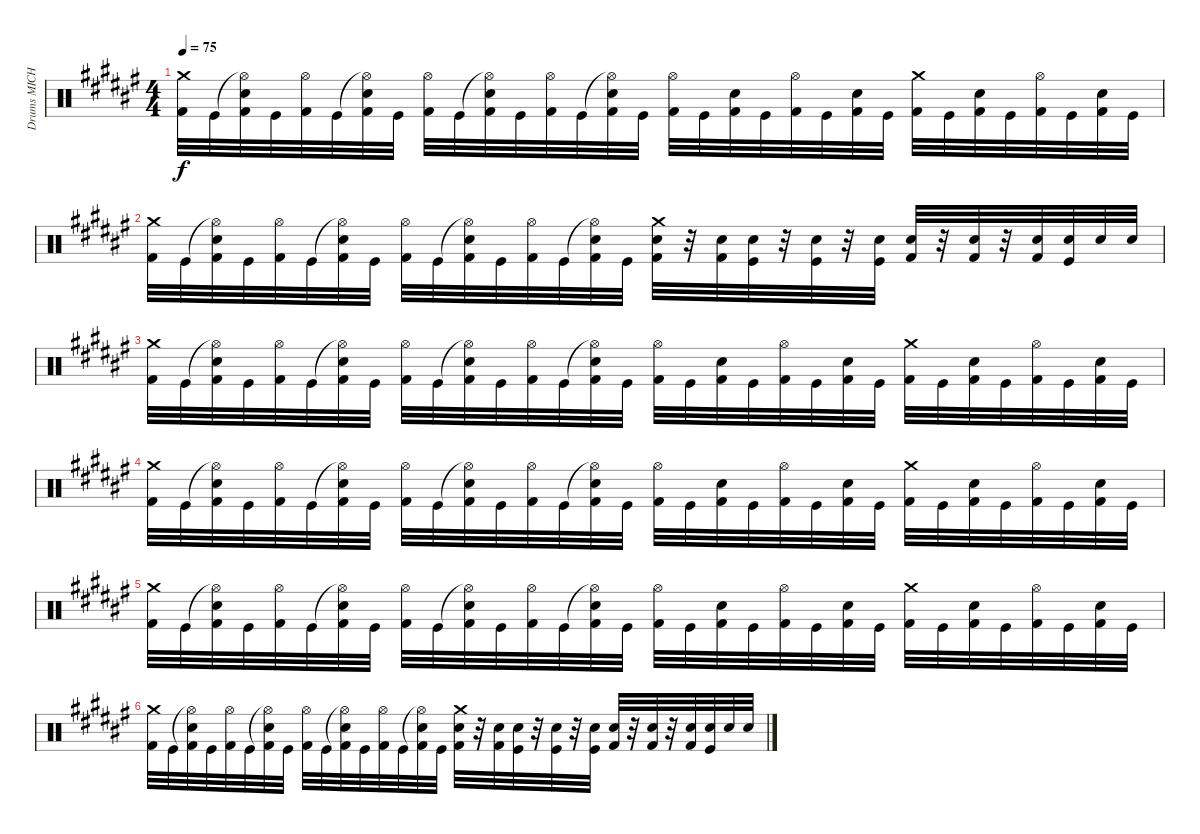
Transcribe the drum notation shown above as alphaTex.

\track ("Drums MICHAEL" "Drums MICH") {instrument percussion}
\staff {score}
\articulation defaults
\ts (4 4)
\tempo 75
\clef neutral
\ks d#minor
("Crash medium (hit)" "Kick (hit) 2").32{dy f} "Kick (hit)".32 ("Hi-Hat (open)"{t} "Snare (hit) 2" "Kick (hit) 2").32 "Kick (hit)".32 ("Hi-Hat (open)" "Kick (hit) 2").32 "Kick (hit)".32 ("Hi-Hat (open)"{t} "Snare (hit) 2" "Kick (hit) 2").32 "Kick (hit)".32 ("Hi-Hat (open)" "Kick (hit) 2").32 "Kick (hit)".32 ("Hi-Hat (open)"{t} "Snare (hit) 2" "Kick (hit) 2").32 "Kick (hit)".32 ("Hi-Hat (open)" "Kick (hit) 2").32 "Kick (hit)".32 ("Hi-Hat (open)"{t} "Snare (hit) 2" "Kick (hit) 2").32 "Kick (hit)".32 ("Hi-Hat (open)" "Kick (hit) 2").32 "Kick (hit)".32 ("Snare (hit) 2" "Kick (hit) 2").32 "Kick (hit)".32 ("Hi-Hat (open)" "Kick (hit) 2").32 "Kick (hit)".32 ("Snare (hit) 2" "Kick (hit) 2").32 "Kick (hit)".32 ("Crash medium (hit)" "Kick (hit) 2").32 "Kick (hit)".32 ("Snare (hit) 2" "Kick (hit) 2").32 "Kick (hit)".32 ("Hi-Hat (open)" "Kick (hit) 2").32 "Kick (hit)".32 ("Snare (hit) 2" "Kick (hit) 2").32 "Kick (hit)".32 |
("Crash medium (hit)" "Kick (hit) 2").32 "Kick (hit)".32 ("Hi-Hat (open)"{t} "Snare (hit) 2" "Kick (hit) 2").32 "Kick (hit)".32 ("Hi-Hat (open)" "Kick (hit) 2").32 "Kick (hit)".32 ("Hi-Hat (open)"{t} "Snare (hit) 2" "Kick (hit) 2").32 "Kick (hit)".32 ("Hi-Hat (open)" "Kick (hit) 2").32 "Kick (hit)".32 ("Hi-Hat (open)"{t} "Snare (hit) 2" "Kick (hit) 2").32 "Kick (hit)".32 ("Hi-Hat (open)" "Kick (hit) 2").32 "Kick (hit)".32 ("Hi-Hat (open)"{t} "Snare (hit) 2" "Kick (hit) 2").32 "Kick (hit)".32 ("Crash medium (hit)" "Snare (hit) 2" "Kick (hit) 2").32 r.32 ("Snare (hit) 2" "Kick (hit) 2").32 ("Snare (hit) 2" "Kick (hit)").32 r.32 ("Snare (hit) 2" "Kick (hit)").32 r.32 ("Snare (hit) 2" "Kick (hit)").32 ("Snare (hit) 2" "Kick (hit) 2").32 r.32 ("Snare (hit) 2" "Kick (hit) 2").32 r.32 ("Snare (hit) 2" "Kick (hit) 2").32 ("Snare (hit) 2" "Kick (hit)").32 "Snare (hit) 2".32 "Snare (hit) 2".32 |
("Crash medium (hit)" "Kick (hit) 2").32 "Kick (hit)".32 ("Hi-Hat (open)"{t} "Snare (hit) 2" "Kick (hit) 2").32 "Kick (hit)".32 ("Hi-Hat (open)" "Kick (hit) 2").32 "Kick (hit)".32 ("Hi-Hat (open)"{t} "Snare (hit) 2" "Kick (hit) 2").32 "Kick (hit)".32 ("Hi-Hat (open)" "Kick (hit) 2").32 "Kick (hit)".32 ("Hi-Hat (open)"{t} "Snare (hit) 2" "Kick (hit) 2").32 "Kick (hit)".32 ("Hi-Hat (open)" "Kick (hit) 2").32 "Kick (hit)".32 ("Hi-Hat (open)"{t} "Snare (hit) 2" "Kick (hit) 2").32 "Kick (hit)".32 ("Hi-Hat (open)" "Kick (hit) 2").32 "Kick (hit)".32 ("Snare (hit) 2" "Kick (hit) 2").32 "Kick (hit)".32 ("Hi-Hat (open)" "Kick (hit) 2").32 "Kick (hit)".32 ("Snare (hit) 2" "Kick (hit) 2").32 "Kick (hit)".32 ("Crash medium (hit)" "Kick (hit) 2").32 "Kick (hit)".32 ("Snare (hit) 2" "Kick (hit) 2").32 "Kick (hit)".32 ("Hi-Hat (open)" "Kick (hit) 2").32 "Kick (hit)".32 ("Snare (hit) 2" "Kick (hit) 2").32 "Kick (hit)".32 |
("Crash medium (hit)" "Kick (hit) 2").32 "Kick (hit)".32 ("Hi-Hat (open)"{t} "Snare (hit) 2" "Kick (hit) 2").32 "Kick (hit)".32 ("Hi-Hat (open)" "Kick (hit) 2").32 "Kick (hit)".32 ("Hi-Hat (open)"{t} "Snare (hit) 2" "Kick (hit) 2").32 "Kick (hit)".32 ("Hi-Hat (open)" "Kick (hit) 2").32 "Kick (hit)".32 ("Hi-Hat (open)"{t} "Snare (hit) 2" "Kick (hit) 2").32 "Kick (hit)".32 ("Hi-Hat (open)" "Kick (hit) 2").32 "Kick (hit)".32 ("Hi-Hat (open)"{t} "Snare (hit) 2" "Kick (hit) 2").32 "Kick (hit)".32 ("Hi-Hat (open)" "Kick (hit) 2").32 "Kick (hit)".32 ("Snare (hit) 2" "Kick (hit) 2").32 "Kick (hit)".32 ("Hi-Hat (open)" "Kick (hit) 2").32 "Kick (hit)".32 ("Snare (hit) 2" "Kick (hit) 2").32 "Kick (hit)".32 ("Crash medium (hit)" "Kick (hit) 2").32 "Kick (hit)".32 ("Snare (hit) 2" "Kick (hit) 2").32 "Kick (hit)".32 ("Hi-Hat (open)" "Kick (hit) 2").32 "Kick (hit)".32 ("Snare (hit) 2" "Kick (hit) 2").32 "Kick (hit)".32 |
("Crash medium (hit)" "Kick (hit) 2").32 "Kick (hit)".32 ("Hi-Hat (open)"{t} "Snare (hit) 2" "Kick (hit) 2").32 "Kick (hit)".32 ("Hi-Hat (open)" "Kick (hit) 2").32 "Kick (hit)".32 ("Hi-Hat (open)"{t} "Snare (hit) 2" "Kick (hit) 2").32 "Kick (hit)".32 ("Hi-Hat (open)" "Kick (hit) 2").32 "Kick (hit)".32 ("Hi-Hat (open)"{t} "Snare (hit) 2" "Kick (hit) 2").32 "Kick (hit)".32 ("Hi-Hat (open)" "Kick (hit) 2").32 "Kick (hit)".32 ("Hi-Hat (open)"{t} "Snare (hit) 2" "Kick (hit) 2").32 "Kick (hit)".32 ("Hi-Hat (open)" "Kick (hit) 2").32 "Kick (hit)".32 ("Snare (hit) 2" "Kick (hit) 2").32 "Kick (hit)".32 ("Hi-Hat (open)" "Kick (hit) 2").32 "Kick (hit)".32 ("Snare (hit) 2" "Kick (hit) 2").32 "Kick (hit)".32 ("Crash medium (hit)" "Kick (hit) 2").32 "Kick (hit)".32 ("Snare (hit) 2" "Kick (hit) 2").32 "Kick (hit)".32 ("Hi-Hat (open)" "Kick (hit) 2").32 "Kick (hit)".32 ("Snare (hit) 2" "Kick (hit) 2").32 "Kick (hit)".32 |
("Crash medium (hit)" "Kick (hit) 2").32 "Kick (hit)".32 ("Hi-Hat (open)"{t} "Snare (hit) 2" "Kick (hit) 2").32 "Kick (hit)".32 ("Hi-Hat (open)" "Kick (hit) 2").32 "Kick (hit)".32 ("Hi-Hat (open)"{t} "Snare (hit) 2" "Kick (hit) 2").32 "Kick (hit)".32 ("Hi-Hat (open)" "Kick (hit) 2").32 "Kick (hit)".32 ("Hi-Hat (open)"{t} "Snare (hit) 2" "Kick (hit) 2").32 "Kick (hit)".32 ("Hi-Hat (open)" "Kick (hit) 2").32 "Kick (hit)".32 ("Hi-Hat (open)"{t} "Snare (hit) 2" "Kick (hit) 2").32 "Kick (hit)".32 ("Crash medium (hit)" "Snare (hit) 2" "Kick (hit) 2").32 r.32 ("Snare (hit) 2" "Kick (hit) 2").32 ("Snare (hit) 2" "Kick (hit)").32 r.32 ("Snare (hit) 2" "Kick (hit)").32 r.32 ("Snare (hit) 2" "Kick (hit)").32 ("Snare (hit) 2" "Kick (hit) 2").32 r.32 ("Snare (hit) 2" "Kick (hit) 2").32 r.32 ("Snare (hit) 2" "Kick (hit) 2").32 ("Snare (hit) 2" "Kick (hit)").32 "Snare (hit) 2".32 "Snare (hit) 2".32
